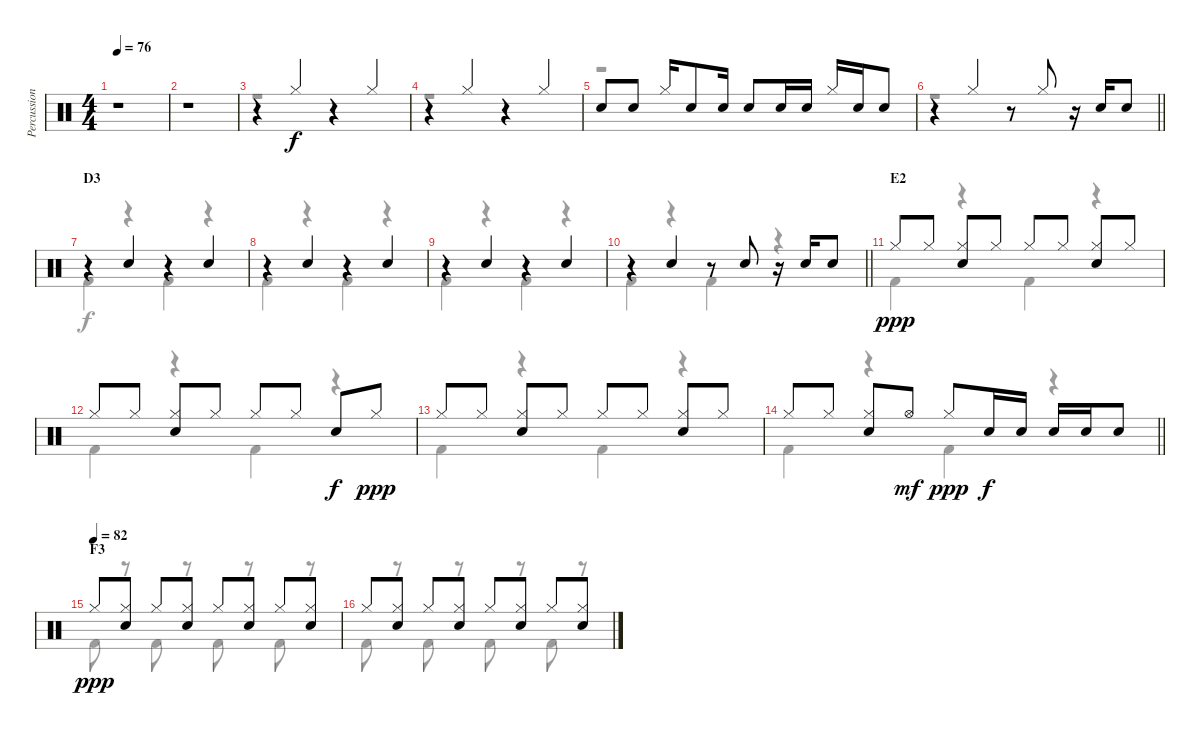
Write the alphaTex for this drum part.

\track ("Percussioni" "Percussion") {instrument percussion}
\staff {score}
\articulation defaults
\voice
\ts (4 4)
\tempo 76
\clef neutral
\ks c
r.1{dy p} |
r.1 |
r.4 "Hi-Hat (closed)".4{dy f} r.4 "Hi-Hat (closed)".4 |
r.4 "Hi-Hat (closed)".4 r.4 "Hi-Hat (closed)".4 |
"Snare (hit) 2".8 "Snare (hit) 2".8 "Hi-Hat (closed)".16 "Snare (hit) 2".8 "Snare (hit) 2".16 "Snare (hit) 2".8 "Snare (hit) 2".16 "Snare (hit) 2".16 "Hi-Hat (closed)".16 "Snare (hit) 2".16 "Snare (hit) 2".8 |
\barLineRight lightlight
r.4 "Hi-Hat (closed)".4 r.8 "Hi-Hat (closed)".8 r.16 "Snare (hit) 2".16 "Snare (hit) 2".8 |
\section ("" "D3")
r.4{volume 16} "Snare (hit) 2".4 r.4 "Snare (hit) 2".4 |
r.4 "Snare (hit) 2".4 r.4 "Snare (hit) 2".4 |
r.4 "Snare (hit) 2".4 r.4 "Snare (hit) 2".4 |
\barLineRight lightlight
r.4 "Snare (hit) 2".4 r.8 "Snare (hit) 2".8 r.16 "Snare (hit) 2".16 "Snare (hit) 2".8 |
\section ("" "E2")
"Hi-Hat (closed)".8{dy ppp} "Hi-Hat (closed)".8 ("Hi-Hat (closed)" "Snare (hit) 2").8 "Hi-Hat (closed)".8 "Hi-Hat (closed)".8 "Hi-Hat (closed)".8 ("Hi-Hat (closed)" "Snare (hit) 2").8 "Hi-Hat (closed)".8 |
"Hi-Hat (closed)".8 "Hi-Hat (closed)".8 ("Hi-Hat (closed)" "Snare (hit) 2").8 "Hi-Hat (closed)".8 "Hi-Hat (closed)".8 "Hi-Hat (closed)".8 "Snare (hit) 2".8{dy f} "Hi-Hat (closed)".8{dy ppp} |
"Hi-Hat (closed)".8 "Hi-Hat (closed)".8 ("Hi-Hat (closed)" "Snare (hit) 2").8 "Hi-Hat (closed)".8 "Hi-Hat (closed)".8 "Hi-Hat (closed)".8 ("Hi-Hat (closed)" "Snare (hit) 2").8 "Hi-Hat (closed)".8 |
\barLineRight lightlight "Hi-Hat (closed)".8 "Hi-Hat (closed)".8
("Hi-Hat (closed)" "Snare (hit) 2").8 "Hi-Hat (open)".8{dy mf} "Hi-Hat (closed)".8{dy ppp} "Snare (hit) 2".16{dy f} "Snare (hit) 2".16 "Snare (hit) 2".16 "Snare (hit) 2".16 "Snare (hit) 2".8 |
\section ("" "F3")
\tempo (82)
"Hi-Hat (closed)".8{dy ppp} ("Hi-Hat (closed)" "Snare (hit) 2").8 "Hi-Hat (closed)".8 ("Hi-Hat (closed)" "Snare (hit) 2").8 "Hi-Hat (closed)".8 ("Hi-Hat (closed)" "Snare (hit) 2").8 "Hi-Hat (closed)".8 ("Hi-Hat (closed)" "Snare (hit) 2").8 |
"Hi-Hat (closed)".8 ("Hi-Hat (closed)" "Snare (hit) 2").8 "Hi-Hat (closed)".8 ("Hi-Hat (closed)" "Snare (hit) 2").8 "Hi-Hat (closed)".8 ("Hi-Hat (closed)" "Snare (hit) 2").8 "Hi-Hat (closed)".8 ("Hi-Hat (closed)" "Snare (hit) 2").8
\voice
\clef neutral
\ottava regular
\simile none
\ks c
r.1{dy f} |
r.1 |
r.1 |
r.1 |
r.1 |
\barLineRight lightlight
r.1 |
"Kick (hit) 2".4 r.4 "Kick (hit) 2".4 r.4 |
"Kick (hit) 2".4 r.4 "Kick (hit) 2".4 r.4 |
"Kick (hit) 2".4 r.4 "Kick (hit) 2".4 r.4 |
\barLineRight lightlight "Kick (hit) 2".4
r.4 "Kick (hit) 2".4 r.4 |
"Kick (hit) 2".4 r.4 "Kick (hit) 2".4 r.4 |
"Kick (hit) 2".4 r.4 "Kick (hit) 2".4 r.4 |
"Kick (hit) 2".4 r.4 "Kick (hit) 2".4 r.4 |
\barLineRight lightlight "Kick (hit) 2".4
r.4 "Kick (hit) 2".4 r.4 |
"Kick (hit) 2".8 r.8 "Kick (hit) 2".8 r.8 "Kick (hit) 2".8 r.8 "Kick (hit) 2".8 r.8 |
"Kick (hit) 2".8 r.8 "Kick (hit) 2".8 r.8 "Kick (hit) 2".8 r.8 "Kick (hit) 2".8 r.8
